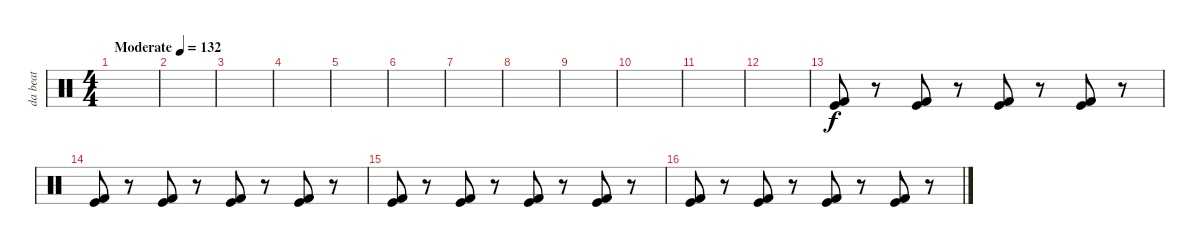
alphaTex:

\track ("da beat" "da beat") {instrument percussion}
\staff {score}
\articulation defaults
\ts (4 4)
\tempo (132 "Moderate")
\clef neutral
\ks c
|
|
|
|
|
|
|
|
|
|
|
|
("Kick (hit)" "Kick (hit) 2").8 r.8 ("Kick (hit)" "Kick (hit) 2").8 r.8 ("Kick (hit)" "Kick (hit) 2").8 r.8 ("Kick (hit)" "Kick (hit) 2").8 r.8 |
("Kick (hit)" "Kick (hit) 2").8 r.8 ("Kick (hit)" "Kick (hit) 2").8 r.8 ("Kick (hit)" "Kick (hit) 2").8 r.8 ("Kick (hit)" "Kick (hit) 2").8 r.8 |
("Kick (hit)" "Kick (hit) 2").8 r.8 ("Kick (hit)" "Kick (hit) 2").8 r.8 ("Kick (hit)" "Kick (hit) 2").8 r.8 ("Kick (hit)" "Kick (hit) 2").8 r.8 |
("Kick (hit)" "Kick (hit) 2").8 r.8 ("Kick (hit)" "Kick (hit) 2").8 r.8 ("Kick (hit)" "Kick (hit) 2").8 r.8 ("Kick (hit)" "Kick (hit) 2").8 r.8
